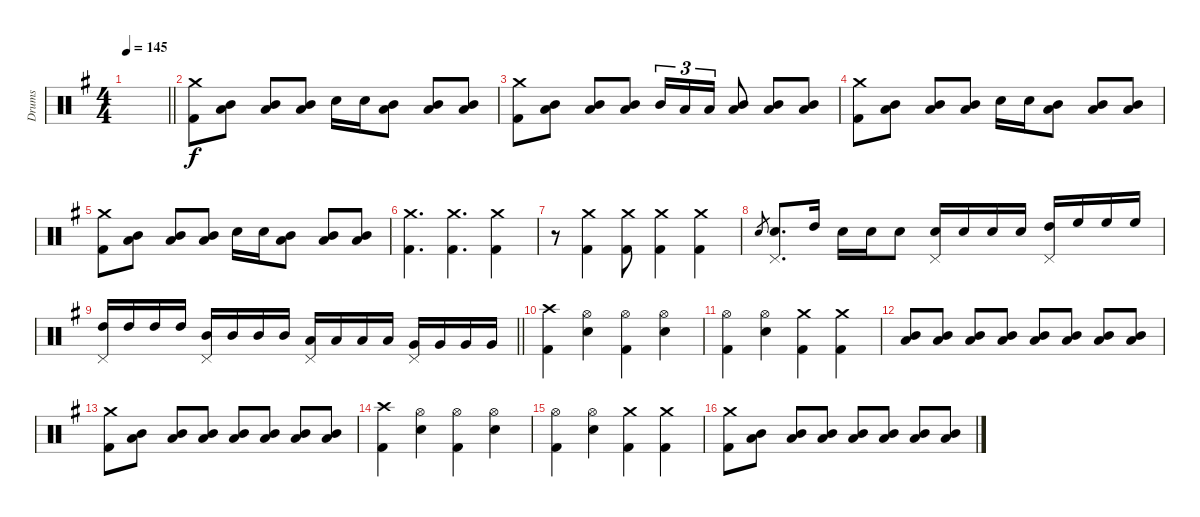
\track ("Drums" "Drums") {instrument percussion}
\staff {score}
\articulation defaults
\ts (4 4)
\tempo 145
\clef neutral
\barLineRight lightlight
\ks eminor
|
("Crash medium (hit)" "Kick (hit) 2").8 ("Mid Tom (hit)" "Low Tom (hit)").8 ("Mid Tom (hit)" "Low Tom (hit)").8 ("Mid Tom (hit)" "Low Tom (hit)").8 "Electric Snare (hit)".16 "Electric Snare (hit)".16 ("Low Tom (hit)" "Mid Tom (hit)").8 ("Low Tom (hit)" "Mid Tom (hit)").8 ("Low Tom (hit)" "Mid Tom (hit)").8 |
("Crash medium (hit)" "Kick (hit) 2").8 ("Mid Tom (hit)" "Low Tom (hit)").8 ("Mid Tom (hit)" "Low Tom (hit)").8 ("Mid Tom (hit)" "Low Tom (hit)").8 "Mid Tom (hit)".16{tu (3 2)} "Low Tom (hit)".16{tu (3 2)} "Low Tom (hit)".16{tu (3 2)} ("Low Tom (hit)" "Mid Tom (hit)").8 ("Low Tom (hit)" "Mid Tom (hit)").8 ("Low Tom (hit)" "Mid Tom (hit)").8 |
("Crash medium (hit)" "Kick (hit) 2").8 ("Mid Tom (hit)" "Low Tom (hit)").8 ("Mid Tom (hit)" "Low Tom (hit)").8 ("Mid Tom (hit)" "Low Tom (hit)").8 "Electric Snare (hit)".16 "Electric Snare (hit)".16 ("Low Tom (hit)" "Mid Tom (hit)").8 ("Low Tom (hit)" "Mid Tom (hit)").8 ("Low Tom (hit)" "Mid Tom (hit)").8 |
("Crash medium (hit)" "Kick (hit) 2").8 ("Mid Tom (hit)" "Low Tom (hit)").8 ("Mid Tom (hit)" "Low Tom (hit)").8 ("Mid Tom (hit)" "Low Tom (hit)").8 "Electric Snare (hit)".16 "Electric Snare (hit)".16 ("Low Tom (hit)" "Mid Tom (hit)").8 ("Low Tom (hit)" "Mid Tom (hit)").8 ("Low Tom (hit)" "Mid Tom (hit)").8 |
("Crash medium (hit)" "Kick (hit) 2").4{d} ("Crash medium (hit)" "Kick (hit) 2").4{d} ("Crash medium (hit)" "Kick (hit) 2").4 |
r.8 ("Crash medium (hit)" "Kick (hit) 2").4 ("Crash medium (hit)" "Kick (hit) 2").8 ("Crash medium (hit)" "Kick (hit) 2").4 ("Crash medium (hit)" "Kick (hit) 2").4 |
"Electric Snare (hit)".8{gr} ("Electric Snare (hit)" "Pedal Hi-Hat (hit)").8{d} "High Tom (hit)".16 "Electric Snare (hit)".16 "Electric Snare (hit)".16 "Electric Snare (hit)".8 ("Electric Snare (hit)" "Pedal Hi-Hat (hit)").16 "Electric Snare (hit)".16 "Electric Snare (hit)".16 "Electric Snare (hit)".16 ("High Tom (hit)" "Pedal Hi-Hat (hit)").16 "High Floor Tom (hit)".16 "High Floor Tom (hit)".16 "High Floor Tom (hit)".16 |
\barLineRight lightlight
("High Tom (hit)" "Pedal Hi-Hat (hit)").16 "High Tom (hit)".16 "High Tom (hit)".16 "High Tom (hit)".16 ("Mid Tom (hit)" "Pedal Hi-Hat (hit)").16 "Mid Tom (hit)".16 "Mid Tom (hit)".16 "Mid Tom (hit)".16 ("Low Tom (hit)" "Pedal Hi-Hat (hit)").16 "Low Tom (hit)".16 "Low Tom (hit)".16 "Low Tom (hit)".16 ("Very Low Tom (hit)" "Pedal Hi-Hat (hit)").16 "Very Low Tom (hit)".16 "Very Low Tom (hit)".16 "Very Low Tom (hit)".16 |
("Crash high (hit)" "Kick (hit) 2").4 ("Hi-Hat (open)" "Electric Snare (hit)").4 ("Hi-Hat (open)" "Kick (hit) 2").4 ("Hi-Hat (open)" "Electric Snare (hit)").4 |
("Hi-Hat (open)" "Kick (hit) 2").4 ("Electric Snare (hit)" "Hi-Hat (open)").4 ("Crash medium (hit)" "Kick (hit) 2").4 ("Crash medium (hit)" "Kick (hit) 2").4 |
("Low Tom (hit)" "Mid Tom (hit)").8 ("Low Tom (hit)" "Mid Tom (hit)").8 ("Low Tom (hit)" "Mid Tom (hit)").8 ("Low Tom (hit)" "Mid Tom (hit)").8 ("Low Tom (hit)" "Mid Tom (hit)").8 ("Low Tom (hit)" "Mid Tom (hit)").8 ("Low Tom (hit)" "Mid Tom (hit)").8 ("Low Tom (hit)" "Mid Tom (hit)").8 |
("Crash medium (hit)" "Kick (hit) 2").8 ("Low Tom (hit)" "Mid Tom (hit)").8 ("Low Tom (hit)" "Mid Tom (hit)").8 ("Low Tom (hit)" "Mid Tom (hit)").8 ("Low Tom (hit)" "Mid Tom (hit)").8 ("Low Tom (hit)" "Mid Tom (hit)").8 ("Low Tom (hit)" "Mid Tom (hit)").8 ("Low Tom (hit)" "Mid Tom (hit)").8 |
("Crash high (hit)" "Kick (hit) 2").4 ("Hi-Hat (open)" "Electric Snare (hit)").4 ("Hi-Hat (open)" "Kick (hit) 2").4 ("Hi-Hat (open)" "Electric Snare (hit)").4 |
("Hi-Hat (open)" "Kick (hit) 2").4 ("Electric Snare (hit)" "Hi-Hat (open)").4 ("Crash medium (hit)" "Kick (hit) 2").4 ("Crash medium (hit)" "Kick (hit) 2").4 |
("Crash medium (hit)" "Kick (hit) 2").8 ("Low Tom (hit)" "Mid Tom (hit)").8 ("Low Tom (hit)" "Mid Tom (hit)").8 ("Low Tom (hit)" "Mid Tom (hit)").8 ("Low Tom (hit)" "Mid Tom (hit)").8 ("Low Tom (hit)" "Mid Tom (hit)").8 ("Low Tom (hit)" "Mid Tom (hit)").8 ("Low Tom (hit)" "Mid Tom (hit)").8
